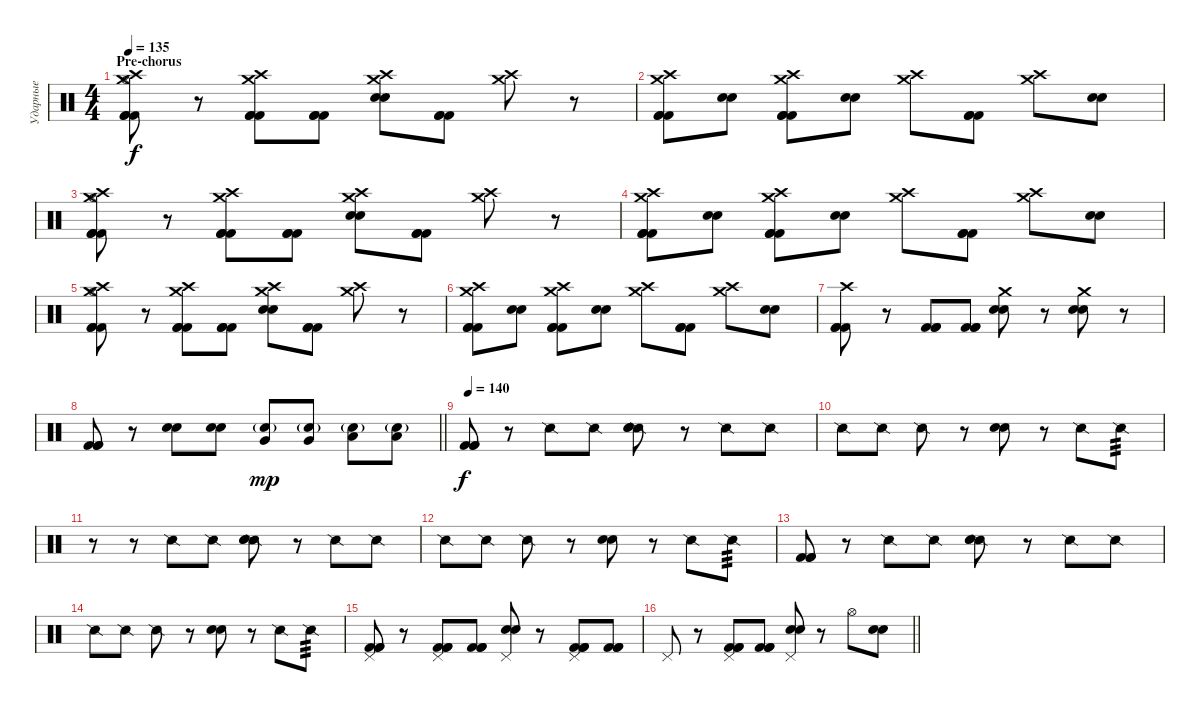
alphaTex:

\track ("Ударные" "Ударные") {instrument percussion}
\staff {score}
\articulation defaults
\ts (4 4)
\section ("" "Pre-chorus")
\tempo 135
\clef neutral
\ks c
("Crash high (hit)" "Crash medium (hit)" "Hi-Hat (open)" "Kick (hit) 2" "Kick (hit) 2" "Kick (hit) 2").8{dy f} r.8 ("Crash high (hit)" "Crash medium (hit)" "Kick (hit) 2" "Kick (hit) 2" "Kick (hit) 2").8 ("Kick (hit) 2" "Kick (hit) 2" "Kick (hit) 2").8 ("Crash high (hit)" "Crash medium (hit)" "Electric Snare (hit)" "Electric Snare (hit)").8 ("Kick (hit) 2" "Kick (hit) 2" "Kick (hit) 2").8 ("Crash high (hit)" "Crash medium (hit)").8 r.8 |
("Crash high (hit)" "Crash medium (hit)" "Kick (hit) 2" "Kick (hit) 2" "Kick (hit) 2").8 ("Electric Snare (hit)" "Electric Snare (hit)").8 ("Crash high (hit)" "Crash medium (hit)" "Kick (hit) 2" "Kick (hit) 2" "Kick (hit) 2").8 ("Electric Snare (hit)" "Electric Snare (hit)").8 ("Crash high (hit)" "Crash medium (hit)").8 ("Kick (hit) 2" "Kick (hit) 2" "Kick (hit) 2").8 ("Crash high (hit)" "Crash medium (hit)").8 ("Electric Snare (hit)" "Electric Snare (hit)").8 |
("Crash high (hit)" "Crash medium (hit)" "Hi-Hat (open)" "Kick (hit) 2" "Kick (hit) 2" "Kick (hit) 2").8 r.8 ("Crash high (hit)" "Crash medium (hit)" "Kick (hit) 2" "Kick (hit) 2" "Kick (hit) 2").8 ("Kick (hit) 2" "Kick (hit) 2" "Kick (hit) 2").8 ("Crash high (hit)" "Crash medium (hit)" "Electric Snare (hit)" "Electric Snare (hit)").8 ("Kick (hit) 2" "Kick (hit) 2" "Kick (hit) 2").8 ("Crash high (hit)" "Crash medium (hit)").8 r.8 |
("Crash high (hit)" "Crash medium (hit)" "Kick (hit) 2" "Kick (hit) 2" "Kick (hit) 2").8 ("Electric Snare (hit)" "Electric Snare (hit)").8 ("Crash high (hit)" "Crash medium (hit)" "Kick (hit) 2" "Kick (hit) 2" "Kick (hit) 2").8 ("Electric Snare (hit)" "Electric Snare (hit)").8 ("Crash high (hit)" "Crash medium (hit)").8 ("Kick (hit) 2" "Kick (hit) 2" "Kick (hit) 2").8 ("Crash high (hit)" "Crash medium (hit)").8 ("Electric Snare (hit)" "Electric Snare (hit)").8 |
("Crash high (hit)" "Crash medium (hit)" "Hi-Hat (open)" "Kick (hit) 2" "Kick (hit) 2" "Kick (hit) 2").8 r.8 ("Crash high (hit)" "Crash medium (hit)" "Kick (hit) 2" "Kick (hit) 2" "Kick (hit) 2").8 ("Kick (hit) 2" "Kick (hit) 2" "Kick (hit) 2").8 ("Crash high (hit)" "Crash medium (hit)" "Electric Snare (hit)" "Electric Snare (hit)").8 ("Kick (hit) 2" "Kick (hit) 2" "Kick (hit) 2").8 ("Crash high (hit)" "Crash medium (hit)").8 r.8 |
("Crash high (hit)" "Crash medium (hit)" "Kick (hit) 2" "Kick (hit) 2" "Kick (hit) 2").8 ("Electric Snare (hit)" "Electric Snare (hit)").8 ("Crash high (hit)" "Crash medium (hit)" "Kick (hit) 2" "Kick (hit) 2" "Kick (hit) 2").8 ("Electric Snare (hit)" "Electric Snare (hit)").8 ("Crash high (hit)" "Crash medium (hit)").8 ("Kick (hit) 2" "Kick (hit) 2" "Kick (hit) 2").8 ("Crash high (hit)" "Crash medium (hit)").8 ("Electric Snare (hit)" "Electric Snare (hit)").8 |
("Crash high (hit)" "Kick (hit) 2" "Kick (hit) 2" "Kick (hit) 2").8 r.8 ("Kick (hit) 2" "Kick (hit) 2" "Kick (hit) 2").8 ("Kick (hit) 2" "Kick (hit) 2" "Kick (hit) 2").8 ("Crash medium (hit)" "Electric Snare (hit)" "Electric Snare (hit)").8 r.8 ("Crash medium (hit)" "Electric Snare (hit)" "Electric Snare (hit)").8 r.8 |
\barLineRight lightlight
("Kick (hit) 2" "Kick (hit) 2" "Kick (hit) 2").8 r.8 ("Electric Snare (hit)" "Electric Snare (hit)").8 ("Electric Snare (hit)" "Electric Snare (hit)").8 ("Very Low Tom (hit)" "Electric Snare (hit)"{g}).8{dy mp} ("Very Low Tom (hit)" "Electric Snare (hit)"{g}).8 ("Low Floor Tom (hit)" "Electric Snare (hit)"{g}).8 ("Low Floor Tom (hit)" "Electric Snare (hit)"{g}).8 |
\tempo 140
("Kick (hit) 2" "Kick (hit) 2" "Kick (hit) 2").8{dy f} r.8 "Snare (side stick) 2".8 "Snare (side stick) 2".8 ("Snare (side stick) 2" "Electric Snare (hit)" "Electric Snare (hit)").8 r.8 "Snare (side stick) 2".8 "Snare (side stick) 2".8 |
"Snare (side stick) 2".8 "Snare (side stick) 2".8 "Snare (side stick) 2".8 r.8 ("Electric Snare (hit)" "Electric Snare (hit)").8 r.8 "Snare (side stick) 2".8 "Snare (side stick) 2".8{tp 3} |
r.8 r.8 "Snare (side stick) 2".8 "Snare (side stick) 2".8 ("Snare (side stick) 2" "Electric Snare (hit)" "Electric Snare (hit)").8 r.8 "Snare (side stick) 2".8 "Snare (side stick) 2".8 |
"Snare (side stick) 2".8 "Snare (side stick) 2".8 "Snare (side stick) 2".8 r.8 ("Electric Snare (hit)" "Electric Snare (hit)").8 r.8 "Snare (side stick) 2".8 "Snare (side stick) 2".8{tp 3} |
("Kick (hit) 2" "Kick (hit) 2" "Kick (hit) 2").8 r.8 "Snare (side stick) 2".8 "Snare (side stick) 2".8 ("Snare (side stick) 2" "Electric Snare (hit)" "Electric Snare (hit)").8 r.8 "Snare (side stick) 2".8 "Snare (side stick) 2".8 |
"Snare (side stick) 2".8 "Snare (side stick) 2".8 "Snare (side stick) 2".8 r.8 ("Electric Snare (hit)" "Electric Snare (hit)").8 r.8 "Snare (side stick) 2".8 "Snare (side stick) 2".8{tp 3} |
("Pedal Hi-Hat (hit)" "Kick (hit) 2" "Kick (hit) 2" "Kick (hit) 2").8 r.8 ("Pedal Hi-Hat (hit)" "Kick (hit) 2" "Kick (hit) 2" "Kick (hit) 2").8 ("Kick (hit) 2" "Kick (hit) 2" "Kick (hit) 2").8 ("Pedal Hi-Hat (hit)" "Electric Snare (hit)" "Electric Snare (hit)").8 r.8 ("Pedal Hi-Hat (hit)" "Kick (hit) 2" "Kick (hit) 2" "Kick (hit) 2").8 ("Kick (hit) 2" "Kick (hit) 2" "Kick (hit) 2").8 |
\barLineRight lightlight "Pedal Hi-Hat (hit)".8
r.8 ("Pedal Hi-Hat (hit)" "Kick (hit) 2" "Kick (hit) 2" "Kick (hit) 2").8 ("Kick (hit) 2" "Kick (hit) 2" "Kick (hit) 2").8 ("Pedal Hi-Hat (hit)" "Electric Snare (hit)" "Electric Snare (hit)").8 r.8 "Hi-Hat (open)".8 ("Electric Snare (hit)" "Electric Snare (hit)").8
